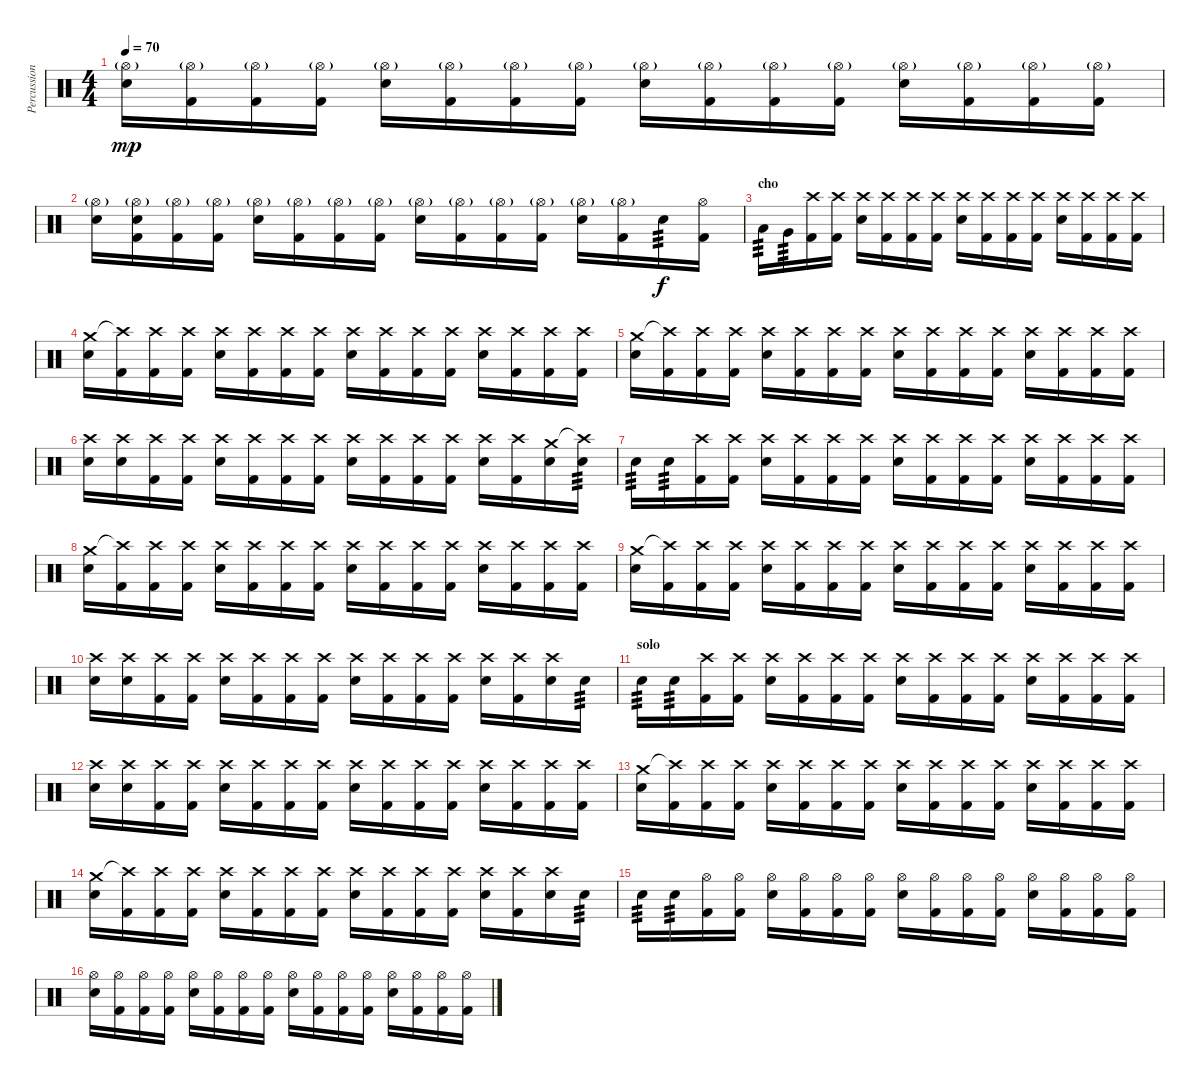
\track ("Percussion" "Percussion") {instrument percussion}
\staff {score}
\articulation defaults
\ts (4 4)
\tempo 70
\clef neutral
\ks c
("Hi-Hat (open)"{g} "Electric Snare (hit)").16{dy mp} ("Hi-Hat (open)"{g} "Kick (hit) 2").16 ("Hi-Hat (open)"{g} "Kick (hit) 2").16 ("Hi-Hat (open)"{g} "Kick (hit) 2").16 ("Hi-Hat (open)"{g} "Electric Snare (hit)").16 ("Hi-Hat (open)"{g} "Kick (hit) 2").16 ("Hi-Hat (open)"{g} "Kick (hit) 2").16 ("Hi-Hat (open)"{g} "Kick (hit) 2").16 ("Hi-Hat (open)"{g} "Electric Snare (hit)").16 ("Hi-Hat (open)"{g} "Kick (hit) 2").16 ("Hi-Hat (open)"{g} "Kick (hit) 2").16 ("Hi-Hat (open)"{g} "Kick (hit) 2").16 ("Hi-Hat (open)"{g} "Electric Snare (hit)").16 ("Hi-Hat (open)"{g} "Kick (hit) 2").16 ("Hi-Hat (open)"{g} "Kick (hit) 2").16 ("Hi-Hat (open)"{g} "Kick (hit) 2").16 |
("Hi-Hat (open)"{g} "Electric Snare (hit)").16 ("Hi-Hat (open)"{g} "Electric Snare (hit)" "Kick (hit) 2").16 ("Hi-Hat (open)"{g} "Kick (hit) 2").16 ("Hi-Hat (open)"{g} "Kick (hit) 2").16 ("Hi-Hat (open)"{g} "Electric Snare (hit)").16 ("Hi-Hat (open)"{g} "Kick (hit) 2").16 ("Hi-Hat (open)"{g} "Kick (hit) 2").16 ("Hi-Hat (open)"{g} "Kick (hit) 2").16 ("Hi-Hat (open)"{g} "Electric Snare (hit)").16 ("Hi-Hat (open)"{g} "Kick (hit) 2").16 ("Hi-Hat (open)"{g} "Kick (hit) 2").16 ("Hi-Hat (open)"{g} "Kick (hit) 2").16 ("Hi-Hat (open)"{g} "Electric Snare (hit)").16 ("Hi-Hat (open)"{g} "Kick (hit) 2").16 "Electric Snare (hit)".16{tp 3 dy f} ("Hi-Hat (open)" "Kick (hit) 2").16 |
\section ("" "cho")
"Low Tom (hit)".16{tp 3} "Very Low Tom (hit)".16{tp 3} ("Crash high (hit)" "Kick (hit) 2").16 ("Crash high (hit)" "Kick (hit) 2").16 ("Crash high (hit)" "Electric Snare (hit)").16 ("Crash high (hit)" "Kick (hit) 2").16 ("Crash high (hit)" "Kick (hit) 2").16 ("Crash high (hit)" "Kick (hit) 2").16 ("Crash high (hit)" "Electric Snare (hit)").16 ("Crash high (hit)" "Kick (hit) 2").16 ("Crash high (hit)" "Kick (hit) 2").16 ("Crash high (hit)" "Kick (hit) 2").16 ("Crash high (hit)" "Electric Snare (hit)").16 ("Crash high (hit)" "Kick (hit) 2").16 ("Crash high (hit)" "Kick (hit) 2").16 ("Crash high (hit)" "Kick (hit) 2").16 |
("Crash medium (hit)" "Electric Snare (hit)").16 ("Crash high (hit)"{t} "Kick (hit) 2").16 ("Crash high (hit)" "Kick (hit) 2").16 ("Crash high (hit)" "Kick (hit) 2").16 ("Crash high (hit)" "Electric Snare (hit)").16 ("Crash high (hit)" "Kick (hit) 2").16 ("Crash high (hit)" "Kick (hit) 2").16 ("Crash high (hit)" "Kick (hit) 2").16 ("Crash high (hit)" "Electric Snare (hit)").16 ("Crash high (hit)" "Kick (hit) 2").16 ("Crash high (hit)" "Kick (hit) 2").16 ("Crash high (hit)" "Kick (hit) 2").16 ("Crash high (hit)" "Electric Snare (hit)").16 ("Crash high (hit)" "Kick (hit) 2").16 ("Crash high (hit)" "Kick (hit) 2").16 ("Crash high (hit)" "Kick (hit) 2").16 |
("Crash medium (hit)" "Electric Snare (hit)").16 ("Crash high (hit)"{t} "Kick (hit) 2").16 ("Crash high (hit)" "Kick (hit) 2").16 ("Crash high (hit)" "Kick (hit) 2").16 ("Crash high (hit)" "Electric Snare (hit)").16 ("Crash high (hit)" "Kick (hit) 2").16 ("Crash high (hit)" "Kick (hit) 2").16 ("Crash high (hit)" "Kick (hit) 2").16 ("Crash high (hit)" "Electric Snare (hit)").16 ("Crash high (hit)" "Kick (hit) 2").16 ("Crash high (hit)" "Kick (hit) 2").16 ("Crash high (hit)" "Kick (hit) 2").16 ("Crash high (hit)" "Electric Snare (hit)").16 ("Crash high (hit)" "Kick (hit) 2").16 ("Crash high (hit)" "Kick (hit) 2").16 ("Crash high (hit)" "Kick (hit) 2").16 |
("Crash high (hit)" "Electric Snare (hit)").16 ("Crash high (hit)" "Electric Snare (hit)").16 ("Crash high (hit)" "Kick (hit) 2").16 ("Crash high (hit)" "Kick (hit) 2").16 ("Crash high (hit)" "Electric Snare (hit)").16 ("Crash high (hit)" "Kick (hit) 2").16 ("Crash high (hit)" "Kick (hit) 2").16 ("Crash high (hit)" "Kick (hit) 2").16 ("Crash high (hit)" "Electric Snare (hit)").16 ("Crash high (hit)" "Kick (hit) 2").16 ("Crash high (hit)" "Kick (hit) 2").16 ("Crash high (hit)" "Kick (hit) 2").16 ("Crash high (hit)" "Electric Snare (hit)").16 ("Crash high (hit)" "Kick (hit) 2").16 ("Crash medium (hit)" "Electric Snare (hit)").16 ("Crash high (hit)"{t} "Electric Snare (hit)").16{tp 3} |
"Electric Snare (hit)".16{tp 3} "Electric Snare (hit)".16{tp 3} ("Crash high (hit)" "Kick (hit) 2").16 ("Crash high (hit)" "Kick (hit) 2").16 ("Crash high (hit)" "Electric Snare (hit)").16 ("Crash high (hit)" "Kick (hit) 2").16 ("Crash high (hit)" "Kick (hit) 2").16 ("Crash high (hit)" "Kick (hit) 2").16 ("Crash high (hit)" "Electric Snare (hit)").16 ("Crash high (hit)" "Kick (hit) 2").16 ("Crash high (hit)" "Kick (hit) 2").16 ("Crash high (hit)" "Kick (hit) 2").16 ("Crash high (hit)" "Electric Snare (hit)").16 ("Crash high (hit)" "Kick (hit) 2").16 ("Crash high (hit)" "Kick (hit) 2").16 ("Crash high (hit)" "Kick (hit) 2").16 |
("Crash medium (hit)" "Electric Snare (hit)").16 ("Crash high (hit)"{t} "Kick (hit) 2").16 ("Crash high (hit)" "Kick (hit) 2").16 ("Crash high (hit)" "Kick (hit) 2").16 ("Crash high (hit)" "Electric Snare (hit)").16 ("Crash high (hit)" "Kick (hit) 2").16 ("Crash high (hit)" "Kick (hit) 2").16 ("Crash high (hit)" "Kick (hit) 2").16 ("Crash high (hit)" "Electric Snare (hit)").16 ("Crash high (hit)" "Kick (hit) 2").16 ("Crash high (hit)" "Kick (hit) 2").16 ("Crash high (hit)" "Kick (hit) 2").16 ("Crash high (hit)" "Electric Snare (hit)").16 ("Crash high (hit)" "Kick (hit) 2").16 ("Crash high (hit)" "Kick (hit) 2").16 ("Crash high (hit)" "Kick (hit) 2").16 |
("Crash medium (hit)" "Electric Snare (hit)").16 ("Crash high (hit)"{t} "Kick (hit) 2").16 ("Crash high (hit)" "Kick (hit) 2").16 ("Crash high (hit)" "Kick (hit) 2").16 ("Crash high (hit)" "Electric Snare (hit)").16 ("Crash high (hit)" "Kick (hit) 2").16 ("Crash high (hit)" "Kick (hit) 2").16 ("Crash high (hit)" "Kick (hit) 2").16 ("Crash high (hit)" "Electric Snare (hit)").16 ("Crash high (hit)" "Kick (hit) 2").16 ("Crash high (hit)" "Kick (hit) 2").16 ("Crash high (hit)" "Kick (hit) 2").16 ("Crash high (hit)" "Electric Snare (hit)").16 ("Crash high (hit)" "Kick (hit) 2").16 ("Crash high (hit)" "Kick (hit) 2").16 ("Crash high (hit)" "Kick (hit) 2").16 |
("Crash high (hit)" "Electric Snare (hit)").16 ("Crash high (hit)" "Electric Snare (hit)").16 ("Crash high (hit)" "Kick (hit) 2").16 ("Crash high (hit)" "Kick (hit) 2").16 ("Crash high (hit)" "Electric Snare (hit)").16 ("Crash high (hit)" "Kick (hit) 2").16 ("Crash high (hit)" "Kick (hit) 2").16 ("Crash high (hit)" "Kick (hit) 2").16 ("Crash high (hit)" "Electric Snare (hit)").16 ("Crash high (hit)" "Kick (hit) 2").16 ("Crash high (hit)" "Kick (hit) 2").16 ("Crash high (hit)" "Kick (hit) 2").16 ("Crash high (hit)" "Electric Snare (hit)").16 ("Crash high (hit)" "Kick (hit) 2").16 ("Crash high (hit)" "Electric Snare (hit)").16 "Electric Snare (hit)".16{tp 3} |
\section ("" "solo")
"Electric Snare (hit)".16{tp 3} "Electric Snare (hit)".16{tp 3} ("Crash high (hit)" "Kick (hit) 2").16 ("Crash high (hit)" "Kick (hit) 2").16 ("Crash high (hit)" "Electric Snare (hit)").16 ("Crash high (hit)" "Kick (hit) 2").16 ("Crash high (hit)" "Kick (hit) 2").16 ("Crash high (hit)" "Kick (hit) 2").16 ("Crash high (hit)" "Electric Snare (hit)").16 ("Crash high (hit)" "Kick (hit) 2").16 ("Crash high (hit)" "Kick (hit) 2").16 ("Crash high (hit)" "Kick (hit) 2").16 ("Crash high (hit)" "Electric Snare (hit)").16 ("Crash high (hit)" "Kick (hit) 2").16 ("Crash high (hit)" "Kick (hit) 2").16 ("Crash high (hit)" "Kick (hit) 2").16 |
("Crash high (hit)" "Electric Snare (hit)").16 ("Crash high (hit)" "Electric Snare (hit)").16 ("Crash high (hit)" "Kick (hit) 2").16 ("Crash high (hit)" "Kick (hit) 2").16 ("Crash high (hit)" "Electric Snare (hit)").16 ("Crash high (hit)" "Kick (hit) 2").16 ("Crash high (hit)" "Kick (hit) 2").16 ("Crash high (hit)" "Kick (hit) 2").16 ("Crash high (hit)" "Electric Snare (hit)").16 ("Crash high (hit)" "Kick (hit) 2").16 ("Crash high (hit)" "Kick (hit) 2").16 ("Crash high (hit)" "Kick (hit) 2").16 ("Crash high (hit)" "Electric Snare (hit)").16 ("Crash high (hit)" "Kick (hit) 2").16 ("Crash high (hit)" "Kick (hit) 2").16 ("Crash high (hit)" "Kick (hit) 2").16 |
("Crash medium (hit)" "Electric Snare (hit)").16 ("Crash high (hit)"{t} "Kick (hit) 2").16 ("Crash high (hit)" "Kick (hit) 2").16 ("Crash high (hit)" "Kick (hit) 2").16 ("Crash high (hit)" "Electric Snare (hit)").16 ("Crash high (hit)" "Kick (hit) 2").16 ("Crash high (hit)" "Kick (hit) 2").16 ("Crash high (hit)" "Kick (hit) 2").16 ("Crash high (hit)" "Electric Snare (hit)").16 ("Crash high (hit)" "Kick (hit) 2").16 ("Crash high (hit)" "Kick (hit) 2").16 ("Crash high (hit)" "Kick (hit) 2").16 ("Crash high (hit)" "Electric Snare (hit)").16 ("Crash high (hit)" "Kick (hit) 2").16 ("Crash high (hit)" "Kick (hit) 2").16 ("Crash high (hit)" "Kick (hit) 2").16 |
("Crash medium (hit)" "Electric Snare (hit)").16 ("Crash high (hit)"{t} "Kick (hit) 2").16 ("Crash high (hit)" "Kick (hit) 2").16 ("Crash high (hit)" "Kick (hit) 2").16 ("Crash high (hit)" "Electric Snare (hit)").16 ("Crash high (hit)" "Kick (hit) 2").16 ("Crash high (hit)" "Kick (hit) 2").16 ("Crash high (hit)" "Kick (hit) 2").16 ("Crash high (hit)" "Electric Snare (hit)").16 ("Crash high (hit)" "Kick (hit) 2").16 ("Crash high (hit)" "Kick (hit) 2").16 ("Crash high (hit)" "Kick (hit) 2").16 ("Crash high (hit)" "Electric Snare (hit)").16 ("Crash high (hit)" "Kick (hit) 2").16 ("Crash high (hit)" "Electric Snare (hit)").16 "Electric Snare (hit)".16{tp 3} |
"Electric Snare (hit)".16{tp 3} "Electric Snare (hit)".16{tp 3} ("Hi-Hat (open)" "Kick (hit) 2").16 ("Hi-Hat (open)" "Kick (hit) 2").16 ("Hi-Hat (open)" "Electric Snare (hit)").16 ("Hi-Hat (open)" "Kick (hit) 2").16 ("Hi-Hat (open)" "Kick (hit) 2").16 ("Hi-Hat (open)" "Kick (hit) 2").16 ("Hi-Hat (open)" "Electric Snare (hit)").16 ("Hi-Hat (open)" "Kick (hit) 2").16 ("Hi-Hat (open)" "Kick (hit) 2").16 ("Hi-Hat (open)" "Kick (hit) 2").16 ("Hi-Hat (open)" "Electric Snare (hit)").16 ("Hi-Hat (open)" "Kick (hit) 2").16 ("Hi-Hat (open)" "Kick (hit) 2").16 ("Hi-Hat (open)" "Kick (hit) 2").16 |
("Hi-Hat (open)" "Electric Snare (hit)").16 ("Hi-Hat (open)" "Kick (hit) 2").16 ("Hi-Hat (open)" "Kick (hit) 2").16 ("Hi-Hat (open)" "Kick (hit) 2").16 ("Hi-Hat (open)" "Electric Snare (hit)").16 ("Hi-Hat (open)" "Kick (hit) 2").16 ("Hi-Hat (open)" "Kick (hit) 2").16 ("Hi-Hat (open)" "Kick (hit) 2").16 ("Hi-Hat (open)" "Electric Snare (hit)").16 ("Hi-Hat (open)" "Kick (hit) 2").16 ("Hi-Hat (open)" "Kick (hit) 2").16 ("Hi-Hat (open)" "Kick (hit) 2").16 ("Hi-Hat (open)" "Electric Snare (hit)").16 ("Hi-Hat (open)" "Kick (hit) 2").16 ("Hi-Hat (open)" "Kick (hit) 2").16 ("Hi-Hat (open)" "Kick (hit) 2").16
